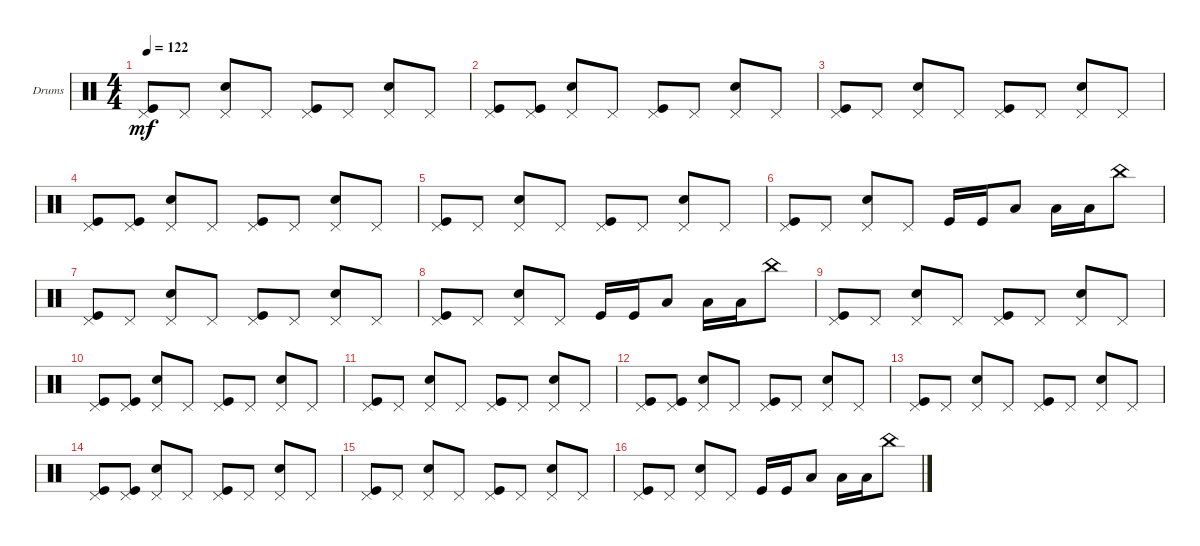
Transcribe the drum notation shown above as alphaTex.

\defaultSystemsLayout 4
\bracketExtendMode groupsimilarinstruments
\firstSystemTrackNameOrientation horizontal
\otherSystemsTrackNameOrientation horizontal
\track ("Drums" "Drums") {instrument percussion}
\staff {score}
\articulation defaults
\ts (4 4)
\tempo 122
\clef neutral
\scale
0.333333
\ks c
("Pedal Hi-Hat (hit)" "Kick (hit)").8{dy mf} "Pedal Hi-Hat (hit)".8 ("Pedal Hi-Hat (hit)" "Snare (hit) 2").8 "Pedal Hi-Hat (hit)".8 ("Pedal Hi-Hat (hit)" "Kick (hit)").8 "Pedal Hi-Hat (hit)".8 ("Pedal Hi-Hat (hit)" "Snare (hit) 2").8 "Pedal Hi-Hat (hit)".8 |
\scale
0.333333 ("Pedal Hi-Hat (hit)" "Kick (hit)").8 ("Pedal Hi-Hat (hit)" "Kick (hit)").8 ("Pedal Hi-Hat (hit)" "Snare (hit) 2").8 "Pedal Hi-Hat (hit)".8 ("Pedal Hi-Hat (hit)" "Kick (hit)").8 "Pedal Hi-Hat (hit)".8 ("Pedal Hi-Hat (hit)" "Snare (hit) 2").8 "Pedal Hi-Hat (hit)".8 |
\scale
0.333333 ("Pedal Hi-Hat (hit)" "Kick (hit)").8 "Pedal Hi-Hat (hit)".8 ("Pedal Hi-Hat (hit)" "Snare (hit) 2").8 "Pedal Hi-Hat (hit)".8 ("Pedal Hi-Hat (hit)" "Kick (hit)").8 "Pedal Hi-Hat (hit)".8 ("Pedal Hi-Hat (hit)" "Snare (hit) 2").8 "Pedal Hi-Hat (hit)".8 |
\scale
0.333333 ("Pedal Hi-Hat (hit)" "Kick (hit)").8 ("Pedal Hi-Hat (hit)" "Kick (hit)").8 ("Pedal Hi-Hat (hit)" "Snare (hit) 2").8 "Pedal Hi-Hat (hit)".8 ("Pedal Hi-Hat (hit)" "Kick (hit)").8 "Pedal Hi-Hat (hit)".8 ("Pedal Hi-Hat (hit)" "Snare (hit) 2").8 "Pedal Hi-Hat (hit)".8 |
\scale
0.333333 ("Pedal Hi-Hat (hit)" "Kick (hit)").8 "Pedal Hi-Hat (hit)".8 ("Pedal Hi-Hat (hit)" "Snare (hit) 2").8 "Pedal Hi-Hat (hit)".8 ("Pedal Hi-Hat (hit)" "Kick (hit)").8 "Pedal Hi-Hat (hit)".8 ("Pedal Hi-Hat (hit)" "Snare (hit) 2").8 "Pedal Hi-Hat (hit)".8 |
\scale
0.333333 ("Pedal Hi-Hat (hit)" "Kick (hit)").8 "Pedal Hi-Hat (hit)".8 ("Pedal Hi-Hat (hit)" "Snare (hit) 2").8 "Pedal Hi-Hat (hit)".8 "Kick (hit)".16 "Kick (hit)".16 "Low Tom (hit)".8 "Low Tom (hit)".16 "Low Tom (hit)".16 "China (hit)".8 |
\scale
0.333333 ("Pedal Hi-Hat (hit)" "Kick (hit)").8 "Pedal Hi-Hat (hit)".8 ("Pedal Hi-Hat (hit)" "Snare (hit) 2").8 "Pedal Hi-Hat (hit)".8 ("Pedal Hi-Hat (hit)" "Kick (hit)").8 "Pedal Hi-Hat (hit)".8 ("Pedal Hi-Hat (hit)" "Snare (hit) 2").8 "Pedal Hi-Hat (hit)".8 |
\scale
0.333333 ("Pedal Hi-Hat (hit)" "Kick (hit)").8 "Pedal Hi-Hat (hit)".8 ("Pedal Hi-Hat (hit)" "Snare (hit) 2").8 "Pedal Hi-Hat (hit)".8 "Kick (hit)".16 "Kick (hit)".16 "Low Tom (hit)".8 "Low Tom (hit)".16 "Low Tom (hit)".16 "China (hit)".8 |
\scale
0.333333 ("Pedal Hi-Hat (hit)" "Kick (hit)").8 "Pedal Hi-Hat (hit)".8 ("Pedal Hi-Hat (hit)" "Snare (hit) 2").8 "Pedal Hi-Hat (hit)".8 ("Pedal Hi-Hat (hit)" "Kick (hit)").8 "Pedal Hi-Hat (hit)".8 ("Pedal Hi-Hat (hit)" "Snare (hit) 2").8 "Pedal Hi-Hat (hit)".8 |
\scale
0.333333 ("Pedal Hi-Hat (hit)" "Kick (hit)").8 ("Pedal Hi-Hat (hit)" "Kick (hit)").8 ("Pedal Hi-Hat (hit)" "Snare (hit) 2").8 "Pedal Hi-Hat (hit)".8 ("Pedal Hi-Hat (hit)" "Kick (hit)").8 "Pedal Hi-Hat (hit)".8 ("Pedal Hi-Hat (hit)" "Snare (hit) 2").8 "Pedal Hi-Hat (hit)".8 |
\scale
0.333333 ("Pedal Hi-Hat (hit)" "Kick (hit)").8 "Pedal Hi-Hat (hit)".8 ("Pedal Hi-Hat (hit)" "Snare (hit) 2").8 "Pedal Hi-Hat (hit)".8 ("Pedal Hi-Hat (hit)" "Kick (hit)").8 "Pedal Hi-Hat (hit)".8 ("Pedal Hi-Hat (hit)" "Snare (hit) 2").8 "Pedal Hi-Hat (hit)".8 |
\scale
0.333333 ("Pedal Hi-Hat (hit)" "Kick (hit)").8 ("Pedal Hi-Hat (hit)" "Kick (hit)").8 ("Pedal Hi-Hat (hit)" "Snare (hit) 2").8 "Pedal Hi-Hat (hit)".8 ("Pedal Hi-Hat (hit)" "Kick (hit)").8 "Pedal Hi-Hat (hit)".8 ("Pedal Hi-Hat (hit)" "Snare (hit) 2").8 "Pedal Hi-Hat (hit)".8 |
\scale
0.333333 ("Pedal Hi-Hat (hit)" "Kick (hit)").8 "Pedal Hi-Hat (hit)".8 ("Pedal Hi-Hat (hit)" "Snare (hit) 2").8 "Pedal Hi-Hat (hit)".8 ("Pedal Hi-Hat (hit)" "Kick (hit)").8 "Pedal Hi-Hat (hit)".8 ("Pedal Hi-Hat (hit)" "Snare (hit) 2").8 "Pedal Hi-Hat (hit)".8 |
\scale
0.333333 ("Pedal Hi-Hat (hit)" "Kick (hit)").8 ("Pedal Hi-Hat (hit)" "Kick (hit)").8 ("Pedal Hi-Hat (hit)" "Snare (hit) 2").8 "Pedal Hi-Hat (hit)".8 ("Pedal Hi-Hat (hit)" "Kick (hit)").8 "Pedal Hi-Hat (hit)".8 ("Pedal Hi-Hat (hit)" "Snare (hit) 2").8 "Pedal Hi-Hat (hit)".8 |
\scale
0.333333 ("Pedal Hi-Hat (hit)" "Kick (hit)").8 "Pedal Hi-Hat (hit)".8 ("Pedal Hi-Hat (hit)" "Snare (hit) 2").8 "Pedal Hi-Hat (hit)".8 ("Pedal Hi-Hat (hit)" "Kick (hit)").8 "Pedal Hi-Hat (hit)".8 ("Pedal Hi-Hat (hit)" "Snare (hit) 2").8 "Pedal Hi-Hat (hit)".8 |
\scale
0.333333 ("Pedal Hi-Hat (hit)" "Kick (hit)").8 "Pedal Hi-Hat (hit)".8 ("Pedal Hi-Hat (hit)" "Snare (hit) 2").8 "Pedal Hi-Hat (hit)".8 "Kick (hit)".16 "Kick (hit)".16 "Low Tom (hit)".8 "Low Tom (hit)".16 "Low Tom (hit)".16 "China (hit)".8
